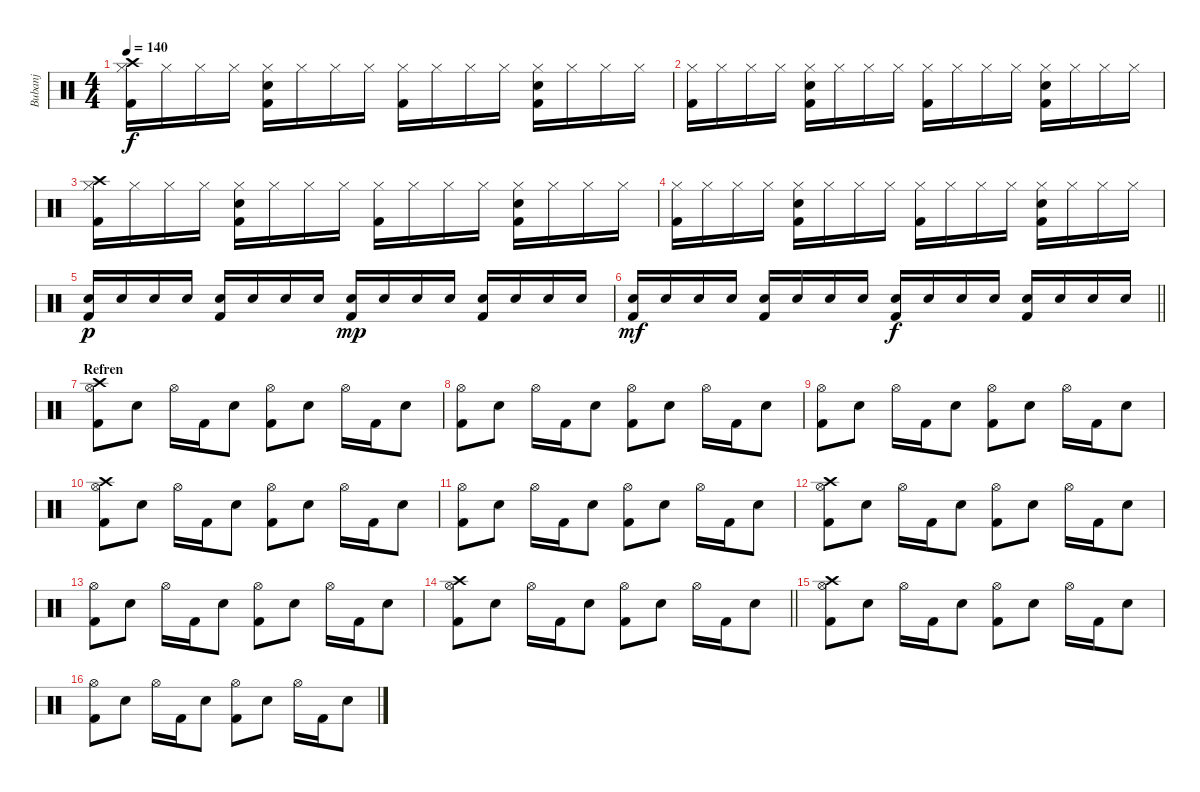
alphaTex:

\track ("Bubanj" "Bubanj") {instrument percussion}
\staff {score}
\articulation defaults
\ts (4 4)
\tempo 140
\clef neutral
\ks c
("Kick (hit) 2" "Hi-Hat (closed)" "Crash high (hit)").16{dy f} "Hi-Hat (closed)".16 "Hi-Hat (closed)".16 "Hi-Hat (closed)".16 ("Kick (hit) 2" "Snare (hit) 2" "Hi-Hat (closed)").16 "Hi-Hat (closed)".16 "Hi-Hat (closed)".16 "Hi-Hat (closed)".16 ("Kick (hit) 2" "Hi-Hat (closed)").16 "Hi-Hat (closed)".16 "Hi-Hat (closed)".16 "Hi-Hat (closed)".16 ("Kick (hit) 2" "Snare (hit) 2" "Hi-Hat (closed)").16 "Hi-Hat (closed)".16 "Hi-Hat (closed)".16 "Hi-Hat (closed)".16 |
("Kick (hit) 2" "Hi-Hat (closed)").16 "Hi-Hat (closed)".16 "Hi-Hat (closed)".16 "Hi-Hat (closed)".16 ("Kick (hit) 2" "Snare (hit) 2" "Hi-Hat (closed)").16 "Hi-Hat (closed)".16 "Hi-Hat (closed)".16 "Hi-Hat (closed)".16 ("Kick (hit) 2" "Hi-Hat (closed)").16 "Hi-Hat (closed)".16 "Hi-Hat (closed)".16 "Hi-Hat (closed)".16 ("Kick (hit) 2" "Snare (hit) 2" "Hi-Hat (closed)").16 "Hi-Hat (closed)".16 "Hi-Hat (closed)".16 "Hi-Hat (closed)".16 |
("Kick (hit) 2" "Hi-Hat (closed)" "Crash high (hit)").16 "Hi-Hat (closed)".16 "Hi-Hat (closed)".16 "Hi-Hat (closed)".16 ("Kick (hit) 2" "Snare (hit) 2" "Hi-Hat (closed)").16 "Hi-Hat (closed)".16 "Hi-Hat (closed)".16 "Hi-Hat (closed)".16 ("Kick (hit) 2" "Hi-Hat (closed)").16 "Hi-Hat (closed)".16 "Hi-Hat (closed)".16 "Hi-Hat (closed)".16 ("Kick (hit) 2" "Snare (hit) 2" "Hi-Hat (closed)").16 "Hi-Hat (closed)".16 "Hi-Hat (closed)".16 "Hi-Hat (closed)".16 |
("Kick (hit) 2" "Hi-Hat (closed)").16 "Hi-Hat (closed)".16 "Hi-Hat (closed)".16 "Hi-Hat (closed)".16 ("Kick (hit) 2" "Snare (hit) 2" "Hi-Hat (closed)").16 "Hi-Hat (closed)".16 "Hi-Hat (closed)".16 "Hi-Hat (closed)".16 ("Kick (hit) 2" "Hi-Hat (closed)").16 "Hi-Hat (closed)".16 "Hi-Hat (closed)".16 "Hi-Hat (closed)".16 ("Kick (hit) 2" "Snare (hit) 2" "Hi-Hat (closed)").16 "Hi-Hat (closed)".16 "Hi-Hat (closed)".16 "Hi-Hat (closed)".16 |
("Kick (hit) 2" "Snare (hit) 2").16{dy p} "Snare (hit) 2".16 "Snare (hit) 2".16 "Snare (hit) 2".16 ("Kick (hit) 2" "Snare (hit) 2").16 "Snare (hit) 2".16 "Snare (hit) 2".16 "Snare (hit) 2".16 ("Kick (hit) 2" "Snare (hit) 2").16{dy mp} "Snare (hit) 2".16 "Snare (hit) 2".16 "Snare (hit) 2".16 ("Kick (hit) 2" "Snare (hit) 2").16 "Snare (hit) 2".16 "Snare (hit) 2".16 "Snare (hit) 2".16 |
\barLineRight lightlight
("Kick (hit) 2" "Snare (hit) 2").16{dy mf} "Snare (hit) 2".16 "Snare (hit) 2".16 "Snare (hit) 2".16 ("Kick (hit) 2" "Snare (hit) 2").16 "Snare (hit) 2".16 "Snare (hit) 2".16 "Snare (hit) 2".16 ("Kick (hit) 2" "Snare (hit) 2").16{dy f} "Snare (hit) 2".16 "Snare (hit) 2".16 "Snare (hit) 2".16 ("Kick (hit) 2" "Snare (hit) 2").16 "Snare (hit) 2".16 "Snare (hit) 2".16 "Snare (hit) 2".16 |
\section ("" "Refren")
("Kick (hit) 2" "Hi-Hat (open)" "Crash high (hit)").8 "Snare (hit) 2".8 "Hi-Hat (open)".16 "Kick (hit) 2".16 "Snare (hit) 2".8 ("Kick (hit) 2" "Hi-Hat (open)").8 "Snare (hit) 2".8 "Hi-Hat (open)".16 "Kick (hit) 2".16 "Snare (hit) 2".8 |
("Kick (hit) 2" "Hi-Hat (open)").8 "Snare (hit) 2".8 "Hi-Hat (open)".16 "Kick (hit) 2".16 "Snare (hit) 2".8 ("Kick (hit) 2" "Hi-Hat (open)").8 "Snare (hit) 2".8 "Hi-Hat (open)".16 "Kick (hit) 2".16 "Snare (hit) 2".8 |
("Kick (hit) 2" "Hi-Hat (open)").8 "Snare (hit) 2".8 "Hi-Hat (open)".16 "Kick (hit) 2".16 "Snare (hit) 2".8 ("Kick (hit) 2" "Hi-Hat (open)").8 "Snare (hit) 2".8 "Hi-Hat (open)".16 "Kick (hit) 2".16 "Snare (hit) 2".8 |
("Kick (hit) 2" "Hi-Hat (open)" "Crash high (hit)").8 "Snare (hit) 2".8 "Hi-Hat (open)".16 "Kick (hit) 2".16 "Snare (hit) 2".8 ("Kick (hit) 2" "Hi-Hat (open)").8 "Snare (hit) 2".8 "Hi-Hat (open)".16 "Kick (hit) 2".16 "Snare (hit) 2".8 |
("Kick (hit) 2" "Hi-Hat (open)").8 "Snare (hit) 2".8 "Hi-Hat (open)".16 "Kick (hit) 2".16 "Snare (hit) 2".8 ("Kick (hit) 2" "Hi-Hat (open)").8 "Snare (hit) 2".8 "Hi-Hat (open)".16 "Kick (hit) 2".16 "Snare (hit) 2".8 |
("Kick (hit) 2" "Hi-Hat (open)" "Crash high (hit)").8 "Snare (hit) 2".8 "Hi-Hat (open)".16 "Kick (hit) 2".16 "Snare (hit) 2".8 ("Kick (hit) 2" "Hi-Hat (open)").8 "Snare (hit) 2".8 "Hi-Hat (open)".16 "Kick (hit) 2".16 "Snare (hit) 2".8 |
("Kick (hit) 2" "Hi-Hat (open)").8 "Snare (hit) 2".8 "Hi-Hat (open)".16 "Kick (hit) 2".16 "Snare (hit) 2".8 ("Kick (hit) 2" "Hi-Hat (open)").8 "Snare (hit) 2".8 "Hi-Hat (open)".16 "Kick (hit) 2".16 "Snare (hit) 2".8 |
\barLineRight lightlight
("Kick (hit) 2" "Hi-Hat (open)" "Crash high (hit)").8 "Snare (hit) 2".8 "Hi-Hat (open)".16 "Kick (hit) 2".16 "Snare (hit) 2".8 ("Kick (hit) 2" "Hi-Hat (open)").8 "Snare (hit) 2".8 "Hi-Hat (open)".16 "Kick (hit) 2".16 "Snare (hit) 2".8 |
("Kick (hit) 2" "Hi-Hat (open)" "Crash high (hit)").8 "Snare (hit) 2".8 "Hi-Hat (open)".16 "Kick (hit) 2".16 "Snare (hit) 2".8 ("Kick (hit) 2" "Hi-Hat (open)").8 "Snare (hit) 2".8 "Hi-Hat (open)".16 "Kick (hit) 2".16 "Snare (hit) 2".8 |
("Kick (hit) 2" "Hi-Hat (open)").8 "Snare (hit) 2".8 "Hi-Hat (open)".16 "Kick (hit) 2".16 "Snare (hit) 2".8 ("Kick (hit) 2" "Hi-Hat (open)").8 "Snare (hit) 2".8 "Hi-Hat (open)".16 "Kick (hit) 2".16 "Snare (hit) 2".8
